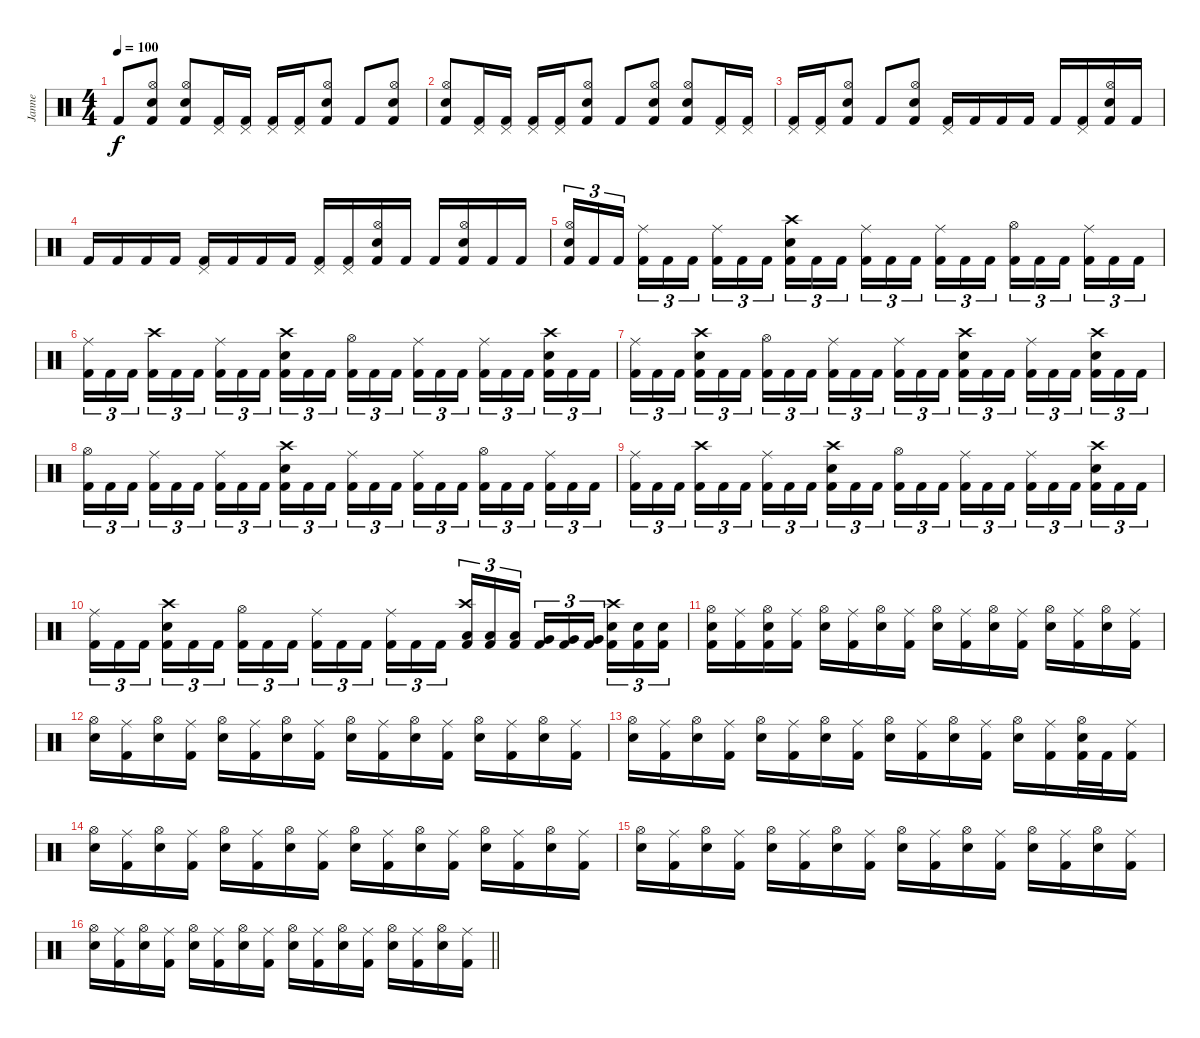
\track ("Janne" "Janne") {instrument percussion}
\staff {score}
\articulation defaults
\ts (4 4)
\tempo 100
\clef neutral
\ks c "Kick (hit) 2".8{dy f}
("Hi-Hat (open)" "Electric Snare (hit)" "Kick (hit) 2").8 ("Hi-Hat (open)" "Electric Snare (hit)" "Kick (hit) 2").8 ("Pedal Hi-Hat (hit)" "Kick (hit) 2").16 ("Pedal Hi-Hat (hit)" "Kick (hit) 2").16 ("Pedal Hi-Hat (hit)" "Kick (hit) 2").16 ("Pedal Hi-Hat (hit)" "Kick (hit) 2").16 ("Hi-Hat (open)" "Electric Snare (hit)" "Kick (hit) 2").8 "Kick (hit) 2".8 ("Hi-Hat (open)" "Electric Snare (hit)" "Kick (hit) 2").8 |
("Hi-Hat (open)" "Electric Snare (hit)" "Kick (hit) 2").8 ("Pedal Hi-Hat (hit)" "Kick (hit) 2").16 ("Pedal Hi-Hat (hit)" "Kick (hit) 2").16 ("Pedal Hi-Hat (hit)" "Kick (hit) 2").16 ("Pedal Hi-Hat (hit)" "Kick (hit) 2").16 ("Hi-Hat (open)" "Electric Snare (hit)" "Kick (hit) 2").8 "Kick (hit) 2".8 ("Hi-Hat (open)" "Electric Snare (hit)" "Kick (hit) 2").8 ("Hi-Hat (open)" "Electric Snare (hit)" "Kick (hit) 2").8 ("Pedal Hi-Hat (hit)" "Kick (hit) 2").16 ("Pedal Hi-Hat (hit)" "Kick (hit) 2").16 |
("Pedal Hi-Hat (hit)" "Kick (hit) 2").16 ("Pedal Hi-Hat (hit)" "Kick (hit) 2").16 ("Hi-Hat (open)" "Electric Snare (hit)" "Kick (hit) 2").8 "Kick (hit) 2".8 ("Hi-Hat (open)" "Electric Snare (hit)" "Kick (hit) 2").8 ("Pedal Hi-Hat (hit)" "Kick (hit) 2").16 "Kick (hit) 2".16 "Kick (hit) 2".16 "Kick (hit) 2".16 "Kick (hit) 2".16 ("Pedal Hi-Hat (hit)" "Kick (hit) 2").16 ("Hi-Hat (open)" "Electric Snare (hit)" "Kick (hit) 2").16 "Kick (hit) 2".16 |
"Kick (hit) 2".16 "Kick (hit) 2".16 "Kick (hit) 2".16 "Kick (hit) 2".16 ("Pedal Hi-Hat (hit)" "Kick (hit) 2").16 "Kick (hit) 2".16 "Kick (hit) 2".16 "Kick (hit) 2".16 ("Pedal Hi-Hat (hit)" "Kick (hit) 2").16 ("Pedal Hi-Hat (hit)" "Kick (hit) 2").16 ("Hi-Hat (open)" "Electric Snare (hit)" "Kick (hit) 2").16 "Kick (hit) 2".16 "Kick (hit) 2".16 ("Hi-Hat (open)" "Electric Snare (hit)" "Kick (hit) 2").16 "Kick (hit) 2".16 "Kick (hit) 2".16 |
("Hi-Hat (open)" "Electric Snare (hit)" "Kick (hit) 2").16{tu (3 2)} "Kick (hit) 2".16{tu (3 2)} "Kick (hit) 2".16{tu (3 2) beam splitsecondary} ("Ride (middle)" "Kick (hit) 2").16{tu (3 2)} "Kick (hit) 2".16{tu (3 2)} "Kick (hit) 2".16{tu (3 2)} ("Ride (middle)" "Kick (hit) 2").16{tu (3 2)} "Kick (hit) 2".16{tu (3 2)} "Kick (hit) 2".16{tu (3 2) beam splitsecondary} ("Crash high (hit)" "Electric Snare (hit)" "Kick (hit) 2").16{tu (3 2)} "Kick (hit) 2".16{tu (3 2)} "Kick (hit) 2".16{tu (3 2)} ("Ride (middle)" "Kick (hit) 2").16{tu (3 2)} "Kick (hit) 2".16{tu (3 2)} "Kick (hit) 2".16{tu (3 2) beam splitsecondary} ("Ride (middle)" "Kick (hit) 2").16{tu (3 2)} "Kick (hit) 2".16{tu (3 2)} "Kick (hit) 2".16{tu (3 2)} ("Hi-Hat (open)" "Kick (hit) 2").16{tu (3 2)} "Kick (hit) 2".16{tu (3 2)} "Kick (hit) 2".16{tu (3 2) beam splitsecondary} ("Ride (middle)" "Kick (hit) 2").16{tu (3 2)} "Kick (hit) 2".16{tu (3 2)} "Kick (hit) 2".16{tu (3 2)} |
("Ride (middle)" "Kick (hit) 2").16{tu (3 2)} "Kick (hit) 2".16{tu (3 2)} "Kick (hit) 2".16{tu (3 2) beam splitsecondary} ("Crash high (hit)" "Kick (hit) 2").16{tu (3 2)} "Kick (hit) 2".16{tu (3 2)} "Kick (hit) 2".16{tu (3 2)} ("Ride (middle)" "Kick (hit) 2").16{tu (3 2)} "Kick (hit) 2".16{tu (3 2)} "Kick (hit) 2".16{tu (3 2) beam splitsecondary} ("Crash high (hit)" "Electric Snare (hit)" "Kick (hit) 2").16{tu (3 2)} "Kick (hit) 2".16{tu (3 2)} "Kick (hit) 2".16{tu (3 2)} ("Hi-Hat (open)" "Kick (hit) 2").16{tu (3 2)} "Kick (hit) 2".16{tu (3 2)} "Kick (hit) 2".16{tu (3 2) beam splitsecondary} ("Ride (middle)" "Kick (hit) 2").16{tu (3 2)} "Kick (hit) 2".16{tu (3 2)} "Kick (hit) 2".16{tu (3 2)} ("Ride (middle)" "Kick (hit) 2").16{tu (3 2)} "Kick (hit) 2".16{tu (3 2)} "Kick (hit) 2".16{tu (3 2) beam splitsecondary} ("Crash high (hit)" "Electric Snare (hit)" "Kick (hit) 2").16{tu (3 2)} "Kick (hit) 2".16{tu (3 2)} "Kick (hit) 2".16{tu (3 2)} |
("Ride (middle)" "Kick (hit) 2").16{tu (3 2)} "Kick (hit) 2".16{tu (3 2)} "Kick (hit) 2".16{tu (3 2) beam splitsecondary} ("Crash high (hit)" "Electric Snare (hit)" "Kick (hit) 2").16{tu (3 2)} "Kick (hit) 2".16{tu (3 2)} "Kick (hit) 2".16{tu (3 2)} ("Hi-Hat (open)" "Kick (hit) 2").16{tu (3 2)} "Kick (hit) 2".16{tu (3 2)} "Kick (hit) 2".16{tu (3 2) beam splitsecondary} ("Ride (middle)" "Kick (hit) 2").16{tu (3 2)} "Kick (hit) 2".16{tu (3 2)} "Kick (hit) 2".16{tu (3 2)} ("Ride (middle)" "Kick (hit) 2").16{tu (3 2)} "Kick (hit) 2".16{tu (3 2)} "Kick (hit) 2".16{tu (3 2) beam splitsecondary} ("Crash high (hit)" "Electric Snare (hit)" "Kick (hit) 2").16{tu (3 2)} "Kick (hit) 2".16{tu (3 2)} "Kick (hit) 2".16{tu (3 2)} ("Ride (middle)" "Kick (hit) 2").16{tu (3 2)} "Kick (hit) 2".16{tu (3 2)} "Kick (hit) 2".16{tu (3 2) beam splitsecondary} ("Crash high (hit)" "Electric Snare (hit)" "Kick (hit) 2").16{tu (3 2)} "Kick (hit) 2".16{tu (3 2)} "Kick (hit) 2".16{tu (3 2)} |
("Hi-Hat (open)" "Kick (hit) 2").16{tu (3 2)} "Kick (hit) 2".16{tu (3 2)} "Kick (hit) 2".16{tu (3 2) beam splitsecondary} ("Ride (middle)" "Kick (hit) 2").16{tu (3 2)} "Kick (hit) 2".16{tu (3 2)} "Kick (hit) 2".16{tu (3 2)} ("Ride (middle)" "Kick (hit) 2").16{tu (3 2)} "Kick (hit) 2".16{tu (3 2)} "Kick (hit) 2".16{tu (3 2) beam splitsecondary} ("Crash high (hit)" "Electric Snare (hit)" "Kick (hit) 2").16{tu (3 2)} "Kick (hit) 2".16{tu (3 2)} "Kick (hit) 2".16{tu (3 2)} ("Ride (middle)" "Kick (hit) 2").16{tu (3 2)} "Kick (hit) 2".16{tu (3 2)} "Kick (hit) 2".16{tu (3 2) beam splitsecondary} ("Ride (middle)" "Kick (hit) 2").16{tu (3 2)} "Kick (hit) 2".16{tu (3 2)} "Kick (hit) 2".16{tu (3 2)} ("Hi-Hat (open)" "Kick (hit) 2").16{tu (3 2)} "Kick (hit) 2".16{tu (3 2)} "Kick (hit) 2".16{tu (3 2) beam splitsecondary} ("Ride (middle)" "Kick (hit) 2").16{tu (3 2)} "Kick (hit) 2".16{tu (3 2)} "Kick (hit) 2".16{tu (3 2)} |
("Ride (middle)" "Kick (hit) 2").16{tu (3 2)} "Kick (hit) 2".16{tu (3 2)} "Kick (hit) 2".16{tu (3 2) beam splitsecondary} ("Crash high (hit)" "Kick (hit) 2").16{tu (3 2)} "Kick (hit) 2".16{tu (3 2)} "Kick (hit) 2".16{tu (3 2)} ("Ride (middle)" "Kick (hit) 2").16{tu (3 2)} "Kick (hit) 2".16{tu (3 2)} "Kick (hit) 2".16{tu (3 2) beam splitsecondary} ("Crash high (hit)" "Electric Snare (hit)" "Kick (hit) 2").16{tu (3 2)} "Kick (hit) 2".16{tu (3 2)} "Kick (hit) 2".16{tu (3 2)} ("Hi-Hat (open)" "Kick (hit) 2").16{tu (3 2)} "Kick (hit) 2".16{tu (3 2)} "Kick (hit) 2".16{tu (3 2) beam splitsecondary} ("Ride (middle)" "Kick (hit) 2").16{tu (3 2)} "Kick (hit) 2".16{tu (3 2)} "Kick (hit) 2".16{tu (3 2)} ("Ride (middle)" "Kick (hit) 2").16{tu (3 2)} "Kick (hit) 2".16{tu (3 2)} "Kick (hit) 2".16{tu (3 2) beam splitsecondary} ("Crash high (hit)" "Electric Snare (hit)" "Kick (hit) 2").16{tu (3 2)} "Kick (hit) 2".16{tu (3 2)} "Kick (hit) 2".16{tu (3 2)} |
("Ride (middle)" "Kick (hit) 2").16{tu (3 2)} "Kick (hit) 2".16{tu (3 2)} "Kick (hit) 2".16{tu (3 2) beam splitsecondary} ("Crash high (hit)" "Electric Snare (hit)" "Kick (hit) 2").16{tu (3 2)} "Kick (hit) 2".16{tu (3 2)} "Kick (hit) 2".16{tu (3 2)} ("Hi-Hat (open)" "Kick (hit) 2").16{tu (3 2)} "Kick (hit) 2".16{tu (3 2)} "Kick (hit) 2".16{tu (3 2) beam splitsecondary} ("Ride (middle)" "Kick (hit) 2").16{tu (3 2)} "Kick (hit) 2".16{tu (3 2)} "Kick (hit) 2".16{tu (3 2)} ("Ride (middle)" "Kick (hit) 2").16{tu (3 2)} "Kick (hit) 2".16{tu (3 2)} "Kick (hit) 2".16{tu (3 2) beam splitsecondary} ("Crash high (hit)" "Low Tom (hit)" "Kick (hit) 2").16{tu (3 2)} ("Low Tom (hit)" "Kick (hit) 2").16{tu (3 2)} ("Low Tom (hit)" "Kick (hit) 2").16{tu (3 2)} ("Very Low Tom (hit)" "Kick (hit) 2").16{tu (3 2)} ("Very Low Tom (hit)" "Kick (hit) 2").16{tu (3 2)} ("Very Low Tom (hit)" "Kick (hit) 2").16{tu (3 2) beam splitsecondary} ("Crash high (hit)" "Electric Snare (hit)" "Kick (hit) 2").16{tu (3 2)} ("Electric Snare (hit)" "Kick (hit) 2").16{tu (3 2)} ("Electric Snare (hit)" "Kick (hit) 2").16{tu (3 2)} |
("Hi-Hat (open)" "Electric Snare (hit)" "Kick (hit) 2").16 ("Ride (middle)" "Kick (hit) 2").16 ("Hi-Hat (open)" "Electric Snare (hit)" "Kick (hit) 2").16 ("Ride (middle)" "Kick (hit) 2").16 ("Hi-Hat (open)" "Electric Snare (hit)").16 ("Ride (middle)" "Kick (hit) 2").16 ("Hi-Hat (open)" "Electric Snare (hit)").16 ("Ride (middle)" "Kick (hit) 2").16 ("Hi-Hat (open)" "Electric Snare (hit)").16 ("Ride (middle)" "Kick (hit) 2").16 ("Hi-Hat (open)" "Electric Snare (hit)").16 ("Ride (middle)" "Kick (hit) 2").16 ("Hi-Hat (open)" "Electric Snare (hit)").16 ("Ride (middle)" "Kick (hit) 2").16 ("Hi-Hat (open)" "Electric Snare (hit)").16 ("Ride (middle)" "Kick (hit) 2").16 |
("Hi-Hat (open)" "Electric Snare (hit)").16 ("Ride (middle)" "Kick (hit) 2").16 ("Hi-Hat (open)" "Electric Snare (hit)").16 ("Ride (middle)" "Kick (hit) 2").16 ("Hi-Hat (open)" "Electric Snare (hit)").16 ("Ride (middle)" "Kick (hit) 2").16 ("Hi-Hat (open)" "Electric Snare (hit)").16 ("Ride (middle)" "Kick (hit) 2").16 ("Hi-Hat (open)" "Electric Snare (hit)").16 ("Ride (middle)" "Kick (hit) 2").16 ("Hi-Hat (open)" "Electric Snare (hit)").16 ("Ride (middle)" "Kick (hit) 2").16 ("Hi-Hat (open)" "Electric Snare (hit)").16 ("Ride (middle)" "Kick (hit) 2").16 ("Hi-Hat (open)" "Electric Snare (hit)").16 ("Ride (middle)" "Kick (hit) 2").16 |
("Hi-Hat (open)" "Electric Snare (hit)").16 ("Ride (middle)" "Kick (hit) 2").16 ("Hi-Hat (open)" "Electric Snare (hit)").16 ("Ride (middle)" "Kick (hit) 2").16 ("Hi-Hat (open)" "Electric Snare (hit)").16 ("Ride (middle)" "Kick (hit) 2").16 ("Hi-Hat (open)" "Electric Snare (hit)").16 ("Ride (middle)" "Kick (hit) 2").16 ("Hi-Hat (open)" "Electric Snare (hit)").16 ("Ride (middle)" "Kick (hit) 2").16 ("Hi-Hat (open)" "Electric Snare (hit)").16 ("Ride (middle)" "Kick (hit) 2").16 ("Hi-Hat (open)" "Electric Snare (hit)").16 ("Ride (middle)" "Kick (hit) 2").16 ("Hi-Hat (open)" "Electric Snare (hit)" "Kick (hit) 2").32 "Kick (hit) 2".32 ("Ride (middle)" "Kick (hit) 2").16 |
("Hi-Hat (open)" "Electric Snare (hit)").16 ("Ride (middle)" "Kick (hit) 2").16 ("Hi-Hat (open)" "Electric Snare (hit)").16 ("Ride (middle)" "Kick (hit) 2").16 ("Hi-Hat (open)" "Electric Snare (hit)").16 ("Ride (middle)" "Kick (hit) 2").16 ("Hi-Hat (open)" "Electric Snare (hit)").16 ("Ride (middle)" "Kick (hit) 2").16 ("Hi-Hat (open)" "Electric Snare (hit)").16 ("Ride (middle)" "Kick (hit) 2").16 ("Hi-Hat (open)" "Electric Snare (hit)").16 ("Ride (middle)" "Kick (hit) 2").16 ("Hi-Hat (open)" "Electric Snare (hit)").16 ("Ride (middle)" "Kick (hit) 2").16 ("Hi-Hat (open)" "Electric Snare (hit)").16 ("Ride (middle)" "Kick (hit) 2").16 |
("Hi-Hat (open)" "Electric Snare (hit)").16 ("Ride (middle)" "Kick (hit) 2").16 ("Hi-Hat (open)" "Electric Snare (hit)").16 ("Ride (middle)" "Kick (hit) 2").16 ("Hi-Hat (open)" "Electric Snare (hit)").16 ("Ride (middle)" "Kick (hit) 2").16 ("Hi-Hat (open)" "Electric Snare (hit)").16 ("Ride (middle)" "Kick (hit) 2").16 ("Hi-Hat (open)" "Electric Snare (hit)").16 ("Ride (middle)" "Kick (hit) 2").16 ("Hi-Hat (open)" "Electric Snare (hit)").16 ("Ride (middle)" "Kick (hit) 2").16 ("Hi-Hat (open)" "Electric Snare (hit)").16 ("Ride (middle)" "Kick (hit) 2").16 ("Hi-Hat (open)" "Electric Snare (hit)").16 ("Ride (middle)" "Kick (hit) 2").16 |
\barLineRight lightlight
("Hi-Hat (open)" "Electric Snare (hit)").16 ("Ride (middle)" "Kick (hit) 2").16 ("Hi-Hat (open)" "Electric Snare (hit)").16 ("Ride (middle)" "Kick (hit) 2").16 ("Hi-Hat (open)" "Electric Snare (hit)").16 ("Ride (middle)" "Kick (hit) 2").16 ("Hi-Hat (open)" "Electric Snare (hit)").16 ("Ride (middle)" "Kick (hit) 2").16 ("Hi-Hat (open)" "Electric Snare (hit)").16 ("Ride (middle)" "Kick (hit) 2").16 ("Hi-Hat (open)" "Electric Snare (hit)").16 ("Ride (middle)" "Kick (hit) 2").16 ("Hi-Hat (open)" "Electric Snare (hit)").16 ("Ride (middle)" "Kick (hit) 2").16 ("Hi-Hat (open)" "Electric Snare (hit)").16 ("Ride (middle)" "Kick (hit) 2").16
